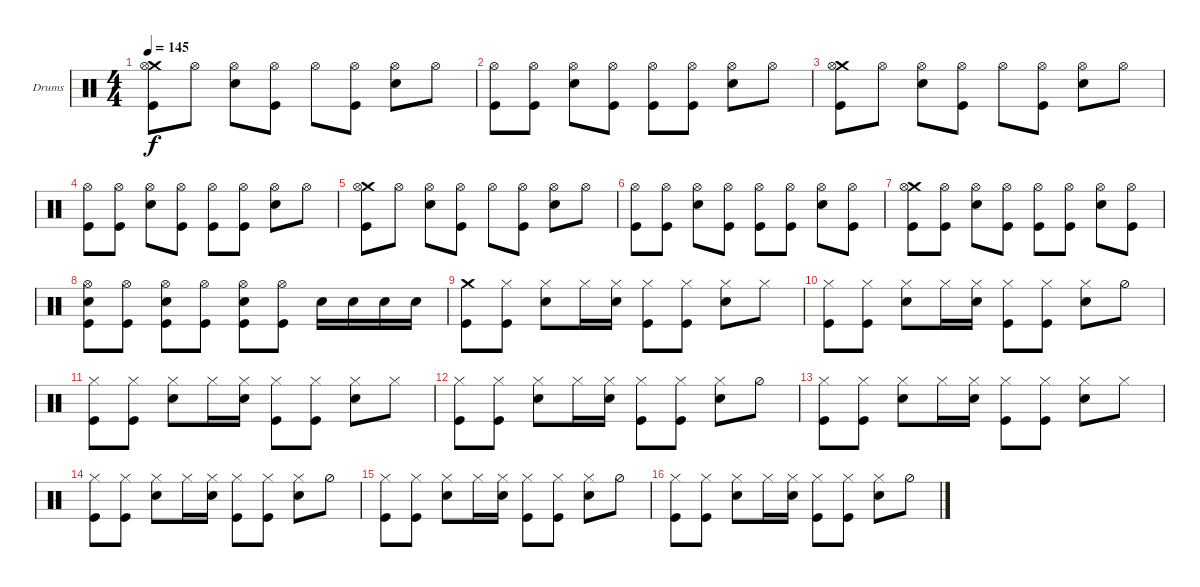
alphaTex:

\defaultSystemsLayout 4
\bracketExtendMode groupsimilarinstruments
\firstSystemTrackNameOrientation horizontal
\otherSystemsTrackNameOrientation horizontal
\track ("Nikola" "Drums") {instrument percussion}
\staff {score}
\articulation defaults
\ts (4 4)
\tempo 145
\clef neutral
\ks c
("Crash medium (hit)" "Kick (hit)" "Hi-Hat (open)").8{dy f} "Hi-Hat (open)".8 ("Hi-Hat (open)" "Snare (hit) 2").8 ("Kick (hit)" "Hi-Hat (open)").8 "Hi-Hat (open)".8 ("Kick (hit)" "Hi-Hat (open)").8 ("Hi-Hat (open)" "Snare (hit) 2").8 "Hi-Hat (open)".8 |
("Hi-Hat (open)" "Kick (hit)").8 ("Kick (hit)" "Hi-Hat (open)").8 ("Hi-Hat (open)" "Snare (hit) 2").8 ("Hi-Hat (open)" "Kick (hit)").8 ("Hi-Hat (open)" "Kick (hit)").8 ("Kick (hit)" "Hi-Hat (open)").8 ("Hi-Hat (open)" "Snare (hit) 2").8 "Hi-Hat (open)".8 |
("Crash medium (hit)" "Kick (hit)" "Hi-Hat (open)").8 "Hi-Hat (open)".8 ("Hi-Hat (open)" "Snare (hit) 2").8 ("Kick (hit)" "Hi-Hat (open)").8 "Hi-Hat (open)".8 ("Kick (hit)" "Hi-Hat (open)").8 ("Hi-Hat (open)" "Snare (hit) 2").8 "Hi-Hat (open)".8 |
("Hi-Hat (open)" "Kick (hit)").8 ("Kick (hit)" "Hi-Hat (open)").8 ("Hi-Hat (open)" "Snare (hit) 2").8 ("Hi-Hat (open)" "Kick (hit)").8 ("Hi-Hat (open)" "Kick (hit)").8 ("Kick (hit)" "Hi-Hat (open)").8 ("Hi-Hat (open)" "Snare (hit) 2").8 "Hi-Hat (open)".8 |
("Crash medium (hit)" "Kick (hit)" "Hi-Hat (open)").8 "Hi-Hat (open)".8 ("Hi-Hat (open)" "Snare (hit) 2").8 ("Kick (hit)" "Hi-Hat (open)").8 "Hi-Hat (open)".8 ("Kick (hit)" "Hi-Hat (open)").8 ("Hi-Hat (open)" "Snare (hit) 2").8 "Hi-Hat (open)".8 |
("Hi-Hat (open)" "Kick (hit)").8 ("Kick (hit)" "Hi-Hat (open)").8 ("Hi-Hat (open)" "Snare (hit) 2").8 ("Hi-Hat (open)" "Kick (hit)").8 ("Hi-Hat (open)" "Kick (hit)").8 ("Kick (hit)" "Hi-Hat (open)").8 ("Hi-Hat (open)" "Snare (hit) 2").8 ("Hi-Hat (open)" "Kick (hit)").8 |
("Crash medium (hit)" "Kick (hit)" "Hi-Hat (open)").8 ("Hi-Hat (open)" "Kick (hit)").8 ("Hi-Hat (open)" "Snare (hit) 2").8 ("Kick (hit)" "Hi-Hat (open)").8 ("Hi-Hat (open)" "Kick (hit)").8 ("Kick (hit)" "Hi-Hat (open)").8 ("Hi-Hat (open)" "Snare (hit) 2").8 ("Kick (hit)" "Hi-Hat (open)").8 |
("Hi-Hat (open)" "Kick (hit)" "Snare (hit) 2").8 ("Hi-Hat (open)" "Kick (hit)").8 ("Hi-Hat (open)" "Kick (hit)" "Snare (hit) 2").8 ("Hi-Hat (open)" "Kick (hit)").8 ("Hi-Hat (open)" "Kick (hit)" "Snare (hit) 2").8 ("Kick (hit)" "Hi-Hat (open)").8 "Snare (hit) 2".16 "Snare (hit) 2".16 "Snare (hit) 2".16 "Snare (hit) 2".16 |
("Kick (hit)" "Crash medium (hit)").8 ("Kick (hit)" "Hi-Hat (closed)").8 ("Snare (hit) 2" "Hi-Hat (closed)").8 "Hi-Hat (closed)".16 ("Snare (hit) 2" "Hi-Hat (closed)").16 ("Kick (hit)" "Hi-Hat (closed)").8 ("Kick (hit)" "Hi-Hat (closed)").8 ("Snare (hit) 2" "Hi-Hat (closed)").8 "Hi-Hat (closed)".8 |
("Kick (hit)" "Hi-Hat (closed)").8 ("Kick (hit)" "Hi-Hat (closed)").8 ("Snare (hit) 2" "Hi-Hat (closed)").8 "Hi-Hat (closed)".16 ("Snare (hit) 2" "Hi-Hat (closed)").16 ("Kick (hit)" "Hi-Hat (closed)").8 ("Kick (hit)" "Hi-Hat (closed)").8 ("Snare (hit) 2" "Hi-Hat (closed)").8 "Hi-Hat (half)".8 |
("Kick (hit)" "Hi-Hat (closed)").8 ("Kick (hit)" "Hi-Hat (closed)").8 ("Snare (hit) 2" "Hi-Hat (closed)").8 "Hi-Hat (closed)".16 ("Snare (hit) 2" "Hi-Hat (closed)").16 ("Kick (hit)" "Hi-Hat (closed)").8 ("Kick (hit)" "Hi-Hat (closed)").8 ("Snare (hit) 2" "Hi-Hat (closed)").8 "Hi-Hat (closed)".8 |
("Kick (hit)" "Hi-Hat (closed)").8 ("Kick (hit)" "Hi-Hat (closed)").8 ("Snare (hit) 2" "Hi-Hat (closed)").8 "Hi-Hat (closed)".16 ("Snare (hit) 2" "Hi-Hat (closed)").16 ("Kick (hit)" "Hi-Hat (closed)").8 ("Kick (hit)" "Hi-Hat (closed)").8 ("Snare (hit) 2" "Hi-Hat (closed)").8 "Hi-Hat (half)".8 |
("Kick (hit)" "Hi-Hat (closed)").8 ("Kick (hit)" "Hi-Hat (closed)").8 ("Snare (hit) 2" "Hi-Hat (closed)").8 "Hi-Hat (closed)".16 ("Snare (hit) 2" "Hi-Hat (closed)").16 ("Kick (hit)" "Hi-Hat (closed)").8 ("Kick (hit)" "Hi-Hat (closed)").8 ("Snare (hit) 2" "Hi-Hat (closed)").8 "Hi-Hat (closed)".8 |
("Kick (hit)" "Hi-Hat (closed)").8 ("Kick (hit)" "Hi-Hat (closed)").8 ("Snare (hit) 2" "Hi-Hat (closed)").8 "Hi-Hat (closed)".16 ("Snare (hit) 2" "Hi-Hat (closed)").16 ("Kick (hit)" "Hi-Hat (closed)").8 ("Kick (hit)" "Hi-Hat (closed)").8 ("Snare (hit) 2" "Hi-Hat (closed)").8 "Hi-Hat (half)".8 |
("Kick (hit)" "Hi-Hat (closed)").8 ("Kick (hit)" "Hi-Hat (closed)").8 ("Snare (hit) 2" "Hi-Hat (closed)").8 "Hi-Hat (closed)".16 ("Snare (hit) 2" "Hi-Hat (closed)").16 ("Kick (hit)" "Hi-Hat (closed)").8 ("Kick (hit)" "Hi-Hat (closed)").8 ("Snare (hit) 2" "Hi-Hat (closed)").8 "Hi-Hat (half)".8 |
("Kick (hit)" "Hi-Hat (closed)").8 ("Kick (hit)" "Hi-Hat (closed)").8 ("Snare (hit) 2" "Hi-Hat (closed)").8 "Hi-Hat (closed)".16 ("Snare (hit) 2" "Hi-Hat (closed)").16 ("Kick (hit)" "Hi-Hat (closed)").8 ("Kick (hit)" "Hi-Hat (closed)").8 ("Snare (hit) 2" "Hi-Hat (closed)").8 "Hi-Hat (half)".8
